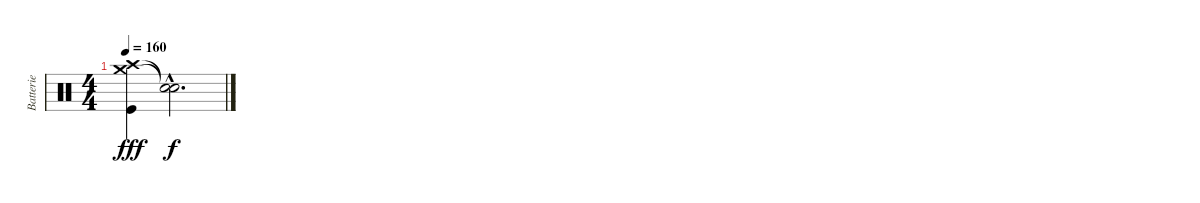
\track ("Batterie" "Batterie") {instrument percussion}
\staff {score}
\articulation defaults
\ts (4 4)
\tempo 160
\clef neutral
\ks c
("Crash medium (hit)" "Crash high (hit)" "Kick (hit)").4{dy fff} ("Snare (hit)"{hac t} "Snare (hit)"{hac t}).2{d dy f}
